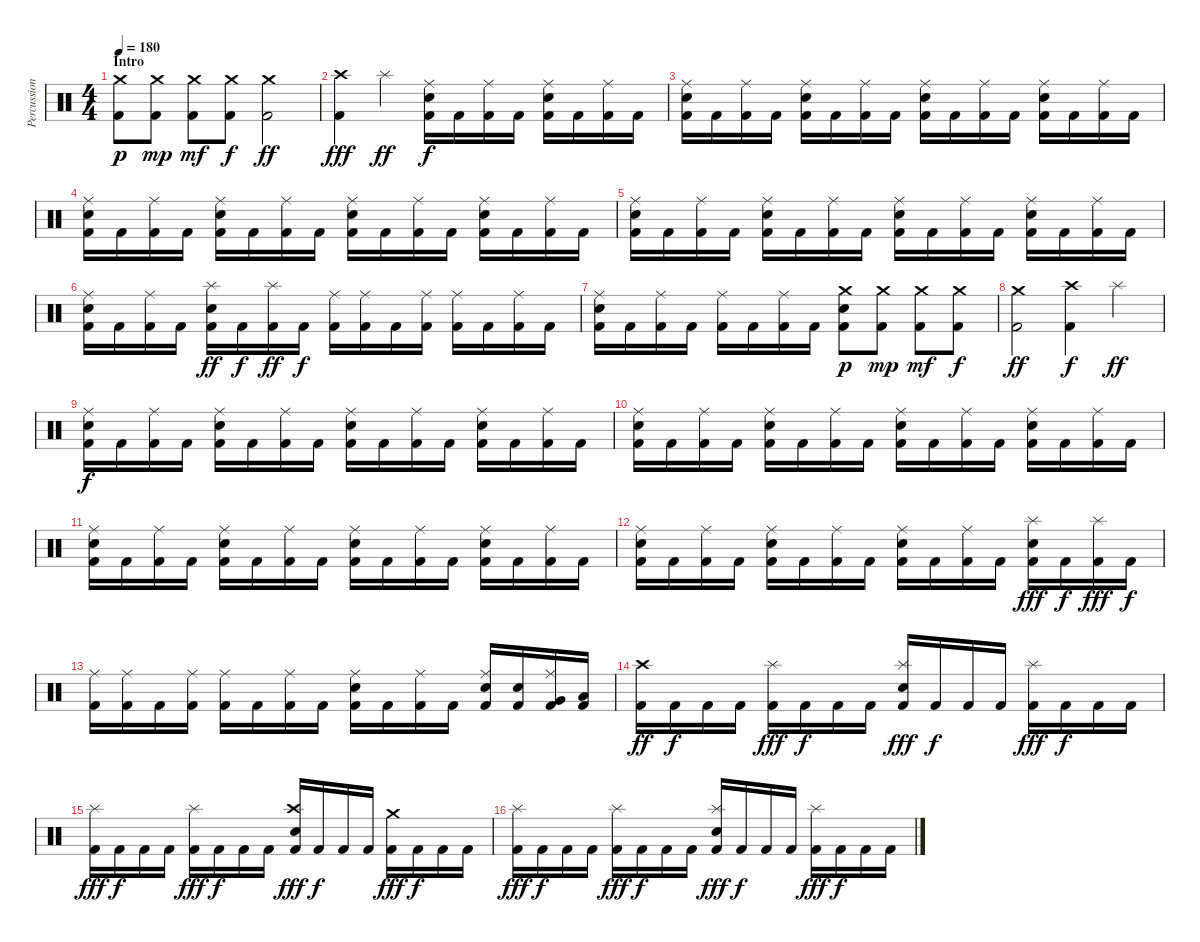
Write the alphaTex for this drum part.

\track ("Percussion" "Percussion") {instrument percussion}
\staff {score}
\articulation defaults
\ts (4 4)
\section ("" "Intro")
\tempo 180
\clef neutral
\ks c
("Crash medium (hit)" "Kick (hit) 2").8{dy p} ("Crash medium (hit)" "Kick (hit) 2").8{dy mp} ("Crash medium (hit)" "Kick (hit) 2").8{dy mf} ("Crash medium (hit)" "Kick (hit) 2").8{dy f} ("Crash medium (hit)" "Kick (hit) 2").2{dy ff} |
("Crash high (hit)" "Kick (hit) 2").4{dy fff} "Splash (hit)".4{dy ff} ("Ride (middle)" "Electric Snare (hit)" "Kick (hit) 2").16{dy f} "Kick (hit) 2".16 ("Ride (middle)" "Kick (hit) 2").16 "Kick (hit) 2".16 ("Ride (middle)" "Electric Snare (hit)" "Kick (hit) 2").16 "Kick (hit) 2".16 ("Ride (middle)" "Kick (hit) 2").16 "Kick (hit) 2".16 |
("Ride (middle)" "Electric Snare (hit)" "Kick (hit) 2").16 "Kick (hit) 2".16 ("Ride (middle)" "Kick (hit) 2").16 "Kick (hit) 2".16 ("Ride (middle)" "Electric Snare (hit)" "Kick (hit) 2").16 "Kick (hit) 2".16 ("Ride (middle)" "Kick (hit) 2").16 "Kick (hit) 2".16 ("Ride (middle)" "Electric Snare (hit)" "Kick (hit) 2").16 "Kick (hit) 2".16 ("Ride (middle)" "Kick (hit) 2").16 "Kick (hit) 2".16 ("Ride (middle)" "Electric Snare (hit)" "Kick (hit) 2").16 "Kick (hit) 2".16 ("Ride (middle)" "Kick (hit) 2").16 "Kick (hit) 2".16 |
("Ride (middle)" "Electric Snare (hit)" "Kick (hit) 2").16 "Kick (hit) 2".16 ("Ride (middle)" "Kick (hit) 2").16 "Kick (hit) 2".16 ("Ride (middle)" "Electric Snare (hit)" "Kick (hit) 2").16 "Kick (hit) 2".16 ("Ride (middle)" "Kick (hit) 2").16 "Kick (hit) 2".16 ("Ride (middle)" "Electric Snare (hit)" "Kick (hit) 2").16 "Kick (hit) 2".16 ("Ride (middle)" "Kick (hit) 2").16 "Kick (hit) 2".16 ("Ride (middle)" "Electric Snare (hit)" "Kick (hit) 2").16 "Kick (hit) 2".16 ("Ride (middle)" "Kick (hit) 2").16 "Kick (hit) 2".16 |
("Ride (middle)" "Electric Snare (hit)" "Kick (hit) 2").16 "Kick (hit) 2".16 ("Ride (middle)" "Kick (hit) 2").16 "Kick (hit) 2".16 ("Ride (middle)" "Electric Snare (hit)" "Kick (hit) 2").16 "Kick (hit) 2".16 ("Ride (middle)" "Kick (hit) 2").16 "Kick (hit) 2".16 ("Ride (middle)" "Electric Snare (hit)" "Kick (hit) 2").16 "Kick (hit) 2".16 ("Ride (middle)" "Kick (hit) 2").16 "Kick (hit) 2".16 ("Ride (middle)" "Electric Snare (hit)" "Kick (hit) 2").16 "Kick (hit) 2".16 ("Ride (middle)" "Kick (hit) 2").16 "Kick (hit) 2".16 |
("Ride (middle)" "Electric Snare (hit)" "Kick (hit) 2").16 "Kick (hit) 2".16 ("Ride (middle)" "Kick (hit) 2").16 "Kick (hit) 2".16 ("Splash (hit)" "Electric Snare (hit)" "Kick (hit) 2").16{dy ff} "Kick (hit) 2".16{dy f} ("Splash (hit)" "Kick (hit) 2").16{dy ff} "Kick (hit) 2".16{dy f} ("Ride (middle)" "Kick (hit) 2").16 ("Ride (middle)" "Kick (hit) 2").16 "Kick (hit) 2".16 ("Ride (middle)" "Kick (hit) 2").16 ("Ride (middle)" "Kick (hit) 2").16 "Kick (hit) 2".16 ("Ride (middle)" "Kick (hit) 2").16 "Kick (hit) 2".16 |
("Ride (middle)" "Electric Snare (hit)" "Kick (hit) 2").16 "Kick (hit) 2".16 ("Ride (middle)" "Kick (hit) 2").16 "Kick (hit) 2".16 ("Ride (middle)" "Kick (hit) 2").16 "Kick (hit) 2".16 ("Ride (middle)" "Kick (hit) 2").16 "Kick (hit) 2".16 ("Crash medium (hit)" "Electric Snare (hit)" "Kick (hit) 2").8{dy p} ("Crash medium (hit)" "Kick (hit) 2").8{dy mp} ("Crash medium (hit)" "Kick (hit) 2").8{dy mf} ("Crash medium (hit)" "Kick (hit) 2").8{dy f} |
("Crash medium (hit)" "Kick (hit) 2").2{dy ff} ("Crash high (hit)" "Kick (hit) 2").4{dy f} "Splash (hit)".4{dy ff} |
("Ride (middle)" "Electric Snare (hit)" "Kick (hit) 2").16{dy f} "Kick (hit) 2".16 ("Ride (middle)" "Kick (hit) 2").16 "Kick (hit) 2".16 ("Ride (middle)" "Electric Snare (hit)" "Kick (hit) 2").16 "Kick (hit) 2".16 ("Ride (middle)" "Kick (hit) 2").16 "Kick (hit) 2".16 ("Ride (middle)" "Electric Snare (hit)" "Kick (hit) 2").16 "Kick (hit) 2".16 ("Ride (middle)" "Kick (hit) 2").16 "Kick (hit) 2".16 ("Ride (middle)" "Electric Snare (hit)" "Kick (hit) 2").16 "Kick (hit) 2".16 ("Ride (middle)" "Kick (hit) 2").16 "Kick (hit) 2".16 |
("Ride (middle)" "Electric Snare (hit)" "Kick (hit) 2").16 "Kick (hit) 2".16 ("Ride (middle)" "Kick (hit) 2").16 "Kick (hit) 2".16 ("Ride (middle)" "Electric Snare (hit)" "Kick (hit) 2").16 "Kick (hit) 2".16 ("Ride (middle)" "Kick (hit) 2").16 "Kick (hit) 2".16 ("Ride (middle)" "Electric Snare (hit)" "Kick (hit) 2").16 "Kick (hit) 2".16 ("Ride (middle)" "Kick (hit) 2").16 "Kick (hit) 2".16 ("Ride (middle)" "Electric Snare (hit)" "Kick (hit) 2").16 "Kick (hit) 2".16 ("Ride (middle)" "Kick (hit) 2").16 "Kick (hit) 2".16 |
("Ride (middle)" "Electric Snare (hit)" "Kick (hit) 2").16 "Kick (hit) 2".16 ("Ride (middle)" "Kick (hit) 2").16 "Kick (hit) 2".16 ("Ride (middle)" "Electric Snare (hit)" "Kick (hit) 2").16 "Kick (hit) 2".16 ("Ride (middle)" "Kick (hit) 2").16 "Kick (hit) 2".16 ("Ride (middle)" "Electric Snare (hit)" "Kick (hit) 2").16 "Kick (hit) 2".16 ("Ride (middle)" "Kick (hit) 2").16 "Kick (hit) 2".16 ("Ride (middle)" "Electric Snare (hit)" "Kick (hit) 2").16 "Kick (hit) 2".16 ("Ride (middle)" "Kick (hit) 2").16 "Kick (hit) 2".16 |
("Ride (middle)" "Electric Snare (hit)" "Kick (hit) 2").16 "Kick (hit) 2".16 ("Ride (middle)" "Kick (hit) 2").16 "Kick (hit) 2".16 ("Ride (middle)" "Electric Snare (hit)" "Kick (hit) 2").16 "Kick (hit) 2".16 ("Ride (middle)" "Kick (hit) 2").16 "Kick (hit) 2".16 ("Ride (middle)" "Electric Snare (hit)" "Kick (hit) 2").16 "Kick (hit) 2".16 ("Ride (middle)" "Kick (hit) 2").16 "Kick (hit) 2".16 ("Splash (hit)" "Electric Snare (hit)" "Kick (hit) 2").16{dy fff} "Kick (hit) 2".16{dy f} ("Splash (hit)" "Kick (hit) 2").16{dy fff} "Kick (hit) 2".16{dy f} |
("Ride (middle)" "Kick (hit) 2").16 ("Ride (middle)" "Kick (hit) 2").16 "Kick (hit) 2".16 ("Ride (middle)" "Kick (hit) 2").16 ("Ride (middle)" "Kick (hit) 2").16 "Kick (hit) 2".16 ("Ride (middle)" "Kick (hit) 2").16 "Kick (hit) 2".16 ("Ride (middle)" "Electric Snare (hit)" "Kick (hit) 2").16 "Kick (hit) 2".16 ("Ride (middle)" "Kick (hit) 2").16 "Kick (hit) 2".16 ("Ride (middle)" "Electric Snare (hit)" "Kick (hit) 2").16 ("Electric Snare (hit)" "Kick (hit) 2").16 ("Ride (middle)" "Very Low Tom (hit)" "Kick (hit) 2").16 ("Low Floor Tom (hit)" "Kick (hit) 2").16 |
("Crash high (hit)" "Kick (hit) 2").16{dy ff} "Kick (hit) 2".16{dy f} "Kick (hit) 2".16 "Kick (hit) 2".16 ("Splash (hit)" "Kick (hit) 2").16{dy fff} "Kick (hit) 2".16{dy f} "Kick (hit) 2".16 "Kick (hit) 2".16 ("Splash (hit)" "Electric Snare (hit)" "Kick (hit) 2").16{dy fff} "Kick (hit) 2".16{dy f} "Kick (hit) 2".16 "Kick (hit) 2".16 ("Splash (hit)" "Kick (hit) 2").16{dy fff} "Kick (hit) 2".16{dy f} "Kick (hit) 2".16 "Kick (hit) 2".16 |
("Splash (hit)" "Kick (hit) 2").16{dy fff} "Kick (hit) 2".16{dy f} "Kick (hit) 2".16 "Kick (hit) 2".16 ("Splash (hit)" "Kick (hit) 2").16{dy fff} "Kick (hit) 2".16{dy f} "Kick (hit) 2".16 "Kick (hit) 2".16 ("Crash high (hit)" "Electric Snare (hit)" "Kick (hit) 2").16{dy fff} "Kick (hit) 2".16{dy f} "Kick (hit) 2".16 "Kick (hit) 2".16 ("Crash medium (hit)" "Kick (hit) 2").16{dy fff} "Kick (hit) 2".16{dy f} "Kick (hit) 2".16 "Kick (hit) 2".16 |
("Splash (hit)" "Kick (hit) 2").16{dy fff} "Kick (hit) 2".16{dy f} "Kick (hit) 2".16 "Kick (hit) 2".16 ("Splash (hit)" "Kick (hit) 2").16{dy fff} "Kick (hit) 2".16{dy f} "Kick (hit) 2".16 "Kick (hit) 2".16 ("Splash (hit)" "Electric Snare (hit)" "Kick (hit) 2").16{dy fff} "Kick (hit) 2".16{dy f} "Kick (hit) 2".16 "Kick (hit) 2".16 ("Splash (hit)" "Kick (hit) 2").16{dy fff} "Kick (hit) 2".16{dy f} "Kick (hit) 2".16 "Kick (hit) 2".16
